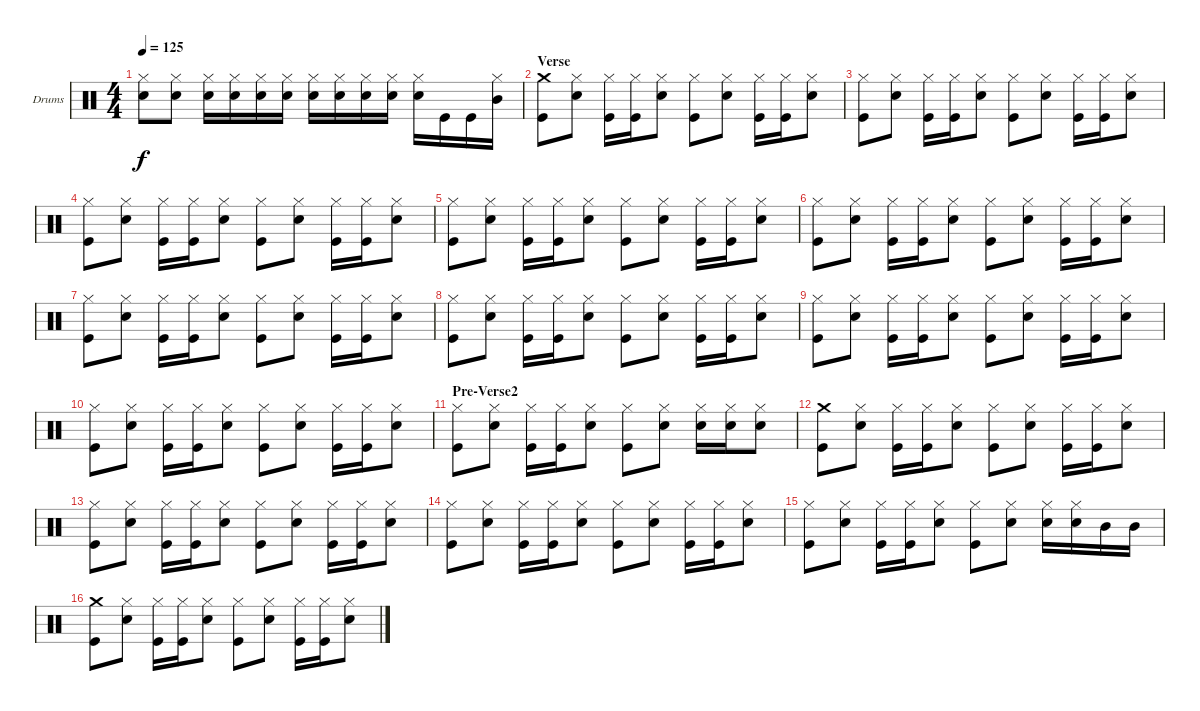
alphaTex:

\defaultSystemsLayout 4
\bracketExtendMode groupsimilarinstruments
\firstSystemTrackNameOrientation horizontal
\otherSystemsTrackNameOrientation horizontal
\track ("Drum" "Drums") {instrument percussion}
\staff {score}
\articulation defaults
\ts (4 4)
\tempo 125
\clef neutral
\ks c
("Hi-Hat (closed)" "Snare (hit) 2").8{dy f} ("Hi-Hat (closed)" "Snare (hit) 2").8 ("Hi-Hat (closed)" "Snare (hit) 2").16 ("Hi-Hat (closed)" "Snare (hit) 2").16 ("Hi-Hat (closed)" "Snare (hit) 2").16 ("Hi-Hat (closed)" "Snare (hit) 2").16 ("Hi-Hat (closed)" "Snare (hit) 2").16 ("Hi-Hat (closed)" "Snare (hit) 2").16 ("Hi-Hat (closed)" "Snare (hit) 2").16 ("Hi-Hat (closed)" "Snare (hit) 2").16 ("Hi-Hat (closed)" "Snare (hit) 2").16 "Kick (hit)".16 "Kick (hit)".16 ("Hi-Hat (closed)" "Mid Tom (hit)").16 |
\section ("" "Verse")
("Crash medium (hit)" "Kick (hit)").8 ("Hi-Hat (closed)" "Snare (hit) 2").8 ("Hi-Hat (closed)" "Kick (hit)").16 ("Hi-Hat (closed)" "Kick (hit)").16 ("Hi-Hat (closed)" "Snare (hit) 2").8 ("Hi-Hat (closed)" "Kick (hit)").8 ("Hi-Hat (closed)" "Snare (hit) 2").8 ("Hi-Hat (closed)" "Kick (hit)").16 ("Hi-Hat (closed)" "Kick (hit)").16 ("Hi-Hat (closed)" "Snare (hit) 2").8 |
("Hi-Hat (closed)" "Kick (hit)").8 ("Hi-Hat (closed)" "Snare (hit) 2").8 ("Hi-Hat (closed)" "Kick (hit)").16 ("Hi-Hat (closed)" "Kick (hit)").16 ("Hi-Hat (closed)" "Snare (hit) 2").8 ("Hi-Hat (closed)" "Kick (hit)").8 ("Hi-Hat (closed)" "Snare (hit) 2").8 ("Hi-Hat (closed)" "Kick (hit)").16 ("Hi-Hat (closed)" "Kick (hit)").16 ("Hi-Hat (closed)" "Snare (hit) 2").8 |
("Hi-Hat (closed)" "Kick (hit)").8 ("Hi-Hat (closed)" "Snare (hit) 2").8 ("Hi-Hat (closed)" "Kick (hit)").16 ("Hi-Hat (closed)" "Kick (hit)").16 ("Hi-Hat (closed)" "Snare (hit) 2").8 ("Hi-Hat (closed)" "Kick (hit)").8 ("Hi-Hat (closed)" "Snare (hit) 2").8 ("Hi-Hat (closed)" "Kick (hit)").16 ("Hi-Hat (closed)" "Kick (hit)").16 ("Hi-Hat (closed)" "Snare (hit) 2").8 |
("Hi-Hat (closed)" "Kick (hit)").8 ("Hi-Hat (closed)" "Snare (hit) 2").8 ("Hi-Hat (closed)" "Kick (hit)").16 ("Hi-Hat (closed)" "Kick (hit)").16 ("Hi-Hat (closed)" "Snare (hit) 2").8 ("Hi-Hat (closed)" "Kick (hit)").8 ("Hi-Hat (closed)" "Snare (hit) 2").8 ("Hi-Hat (closed)" "Kick (hit)").16 ("Hi-Hat (closed)" "Kick (hit)").16 ("Hi-Hat (closed)" "Snare (hit) 2").8 |
("Hi-Hat (closed)" "Kick (hit)").8 ("Hi-Hat (closed)" "Snare (hit) 2").8 ("Hi-Hat (closed)" "Kick (hit)").16 ("Hi-Hat (closed)" "Kick (hit)").16 ("Hi-Hat (closed)" "Snare (hit) 2").8 ("Hi-Hat (closed)" "Kick (hit)").8 ("Hi-Hat (closed)" "Snare (hit) 2").8 ("Hi-Hat (closed)" "Kick (hit)").16 ("Hi-Hat (closed)" "Kick (hit)").16 ("Hi-Hat (closed)" "Snare (hit) 2").8 |
("Hi-Hat (closed)" "Kick (hit)").8 ("Hi-Hat (closed)" "Snare (hit) 2").8 ("Hi-Hat (closed)" "Kick (hit)").16 ("Hi-Hat (closed)" "Kick (hit)").16 ("Hi-Hat (closed)" "Snare (hit) 2").8 ("Hi-Hat (closed)" "Kick (hit)").8 ("Hi-Hat (closed)" "Snare (hit) 2").8 ("Hi-Hat (closed)" "Kick (hit)").16 ("Hi-Hat (closed)" "Kick (hit)").16 ("Hi-Hat (closed)" "Snare (hit) 2").8 |
("Hi-Hat (closed)" "Kick (hit)").8 ("Hi-Hat (closed)" "Snare (hit) 2").8 ("Hi-Hat (closed)" "Kick (hit)").16 ("Hi-Hat (closed)" "Kick (hit)").16 ("Hi-Hat (closed)" "Snare (hit) 2").8 ("Hi-Hat (closed)" "Kick (hit)").8 ("Hi-Hat (closed)" "Snare (hit) 2").8 ("Hi-Hat (closed)" "Kick (hit)").16 ("Hi-Hat (closed)" "Kick (hit)").16 ("Hi-Hat (closed)" "Snare (hit) 2").8 |
("Hi-Hat (closed)" "Kick (hit)").8 ("Hi-Hat (closed)" "Snare (hit) 2").8 ("Hi-Hat (closed)" "Kick (hit)").16 ("Hi-Hat (closed)" "Kick (hit)").16 ("Hi-Hat (closed)" "Snare (hit) 2").8 ("Hi-Hat (closed)" "Kick (hit)").8 ("Hi-Hat (closed)" "Snare (hit) 2").8 ("Hi-Hat (closed)" "Kick (hit)").16 ("Hi-Hat (closed)" "Kick (hit)").16 ("Hi-Hat (closed)" "Snare (hit) 2").8 |
("Hi-Hat (closed)" "Kick (hit)").8 ("Hi-Hat (closed)" "Snare (hit) 2").8 ("Hi-Hat (closed)" "Kick (hit)").16 ("Hi-Hat (closed)" "Kick (hit)").16 ("Hi-Hat (closed)" "Snare (hit) 2").8 ("Hi-Hat (closed)" "Kick (hit)").8 ("Hi-Hat (closed)" "Snare (hit) 2").8 ("Hi-Hat (closed)" "Kick (hit)").16 ("Hi-Hat (closed)" "Kick (hit)").16 ("Hi-Hat (closed)" "Snare (hit) 2").8 |
\section ("" "Pre-Verse2")
("Hi-Hat (closed)" "Kick (hit)").8 ("Hi-Hat (closed)" "Snare (hit) 2").8 ("Hi-Hat (closed)" "Kick (hit)").16 ("Hi-Hat (closed)" "Kick (hit)").16 ("Hi-Hat (closed)" "Snare (hit) 2").8 ("Hi-Hat (closed)" "Kick (hit)").8 ("Hi-Hat (closed)" "Snare (hit) 2").8 ("Hi-Hat (closed)" "Snare (hit) 2").16 ("Hi-Hat (closed)" "Snare (hit) 2").16 ("Hi-Hat (closed)" "Snare (hit) 2").8 |
("Crash medium (hit)" "Kick (hit)").8 ("Hi-Hat (closed)" "Snare (hit) 2").8 ("Hi-Hat (closed)" "Kick (hit)").16 ("Hi-Hat (closed)" "Kick (hit)").16 ("Hi-Hat (closed)" "Snare (hit) 2").8 ("Hi-Hat (closed)" "Kick (hit)").8 ("Hi-Hat (closed)" "Snare (hit) 2").8 ("Hi-Hat (closed)" "Kick (hit)").16 ("Hi-Hat (closed)" "Kick (hit)").16 ("Hi-Hat (closed)" "Snare (hit) 2").8 |
("Hi-Hat (closed)" "Kick (hit)").8 ("Hi-Hat (closed)" "Snare (hit) 2").8 ("Hi-Hat (closed)" "Kick (hit)").16 ("Hi-Hat (closed)" "Kick (hit)").16 ("Hi-Hat (closed)" "Snare (hit) 2").8 ("Hi-Hat (closed)" "Kick (hit)").8 ("Hi-Hat (closed)" "Snare (hit) 2").8 ("Hi-Hat (closed)" "Kick (hit)").16 ("Hi-Hat (closed)" "Kick (hit)").16 ("Hi-Hat (closed)" "Snare (hit) 2").8 |
("Hi-Hat (closed)" "Kick (hit)").8 ("Hi-Hat (closed)" "Snare (hit) 2").8 ("Hi-Hat (closed)" "Kick (hit)").16 ("Hi-Hat (closed)" "Kick (hit)").16 ("Hi-Hat (closed)" "Snare (hit) 2").8 ("Hi-Hat (closed)" "Kick (hit)").8 ("Hi-Hat (closed)" "Snare (hit) 2").8 ("Hi-Hat (closed)" "Kick (hit)").16 ("Hi-Hat (closed)" "Kick (hit)").16 ("Hi-Hat (closed)" "Snare (hit) 2").8 |
("Hi-Hat (closed)" "Kick (hit)").8 ("Hi-Hat (closed)" "Snare (hit) 2").8 ("Hi-Hat (closed)" "Kick (hit)").16 ("Hi-Hat (closed)" "Kick (hit)").16 ("Hi-Hat (closed)" "Snare (hit) 2").8 ("Hi-Hat (closed)" "Kick (hit)").8 ("Hi-Hat (closed)" "Snare (hit) 2").8 ("Hi-Hat (closed)" "Snare (hit) 2").16 ("Hi-Hat (closed)" "Snare (hit) 2").16 "Mid Tom (hit)".16 "Mid Tom (hit)".16 |
("Crash medium (hit)" "Kick (hit)").8 ("Hi-Hat (closed)" "Snare (hit) 2").8 ("Hi-Hat (closed)" "Kick (hit)").16 ("Hi-Hat (closed)" "Kick (hit)").16 ("Hi-Hat (closed)" "Snare (hit) 2").8 ("Hi-Hat (closed)" "Kick (hit)").8 ("Hi-Hat (closed)" "Snare (hit) 2").8 ("Hi-Hat (closed)" "Kick (hit)").16 ("Hi-Hat (closed)" "Kick (hit)").16 ("Hi-Hat (closed)" "Snare (hit) 2").8
